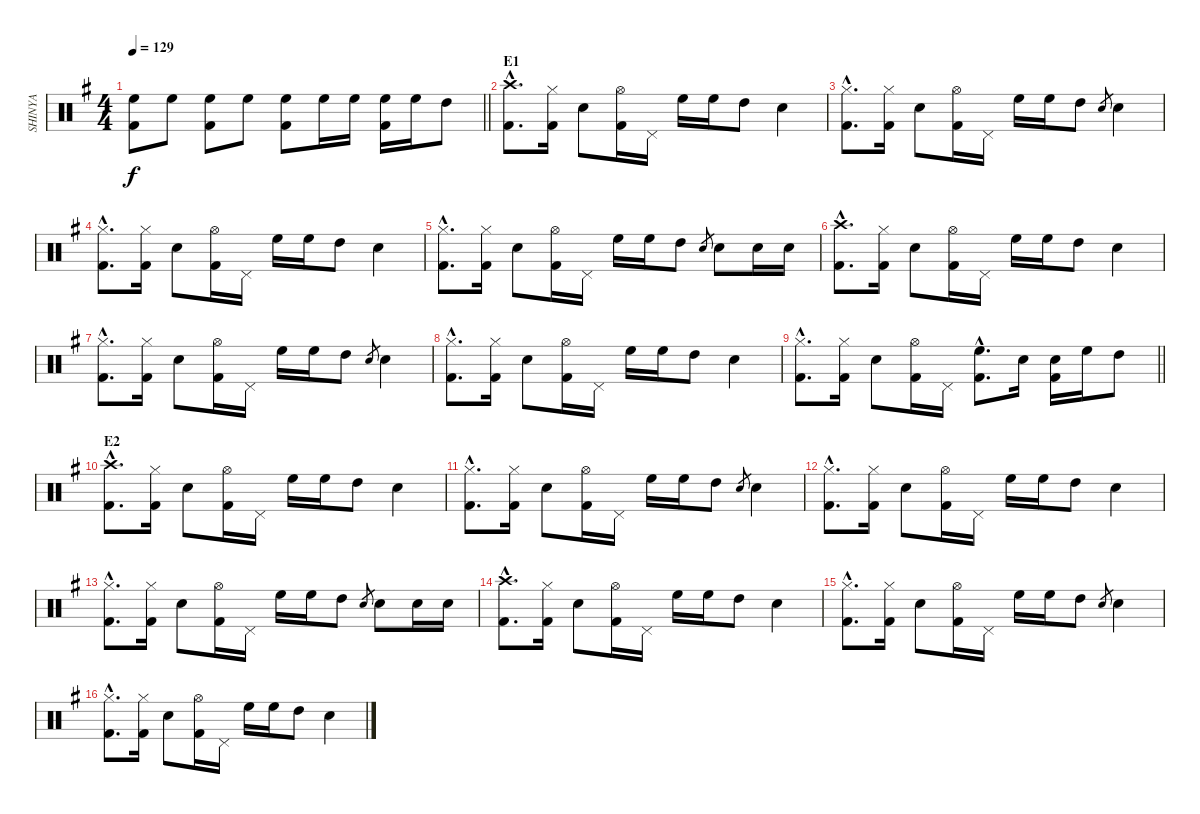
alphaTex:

\track ("SHINYA" "SHINYA") {instrument percussion}
\staff {score}
\articulation defaults
\ts (4 4)
\tempo 129
\clef neutral
\barLineRight lightlight
\ks g
("High Floor Tom (hit)" "Kick (hit) 2").8{dy f} "High Floor Tom (hit)".8 ("High Floor Tom (hit)" "Kick (hit) 2").8 "High Floor Tom (hit)".8 ("High Floor Tom (hit)" "Kick (hit) 2").8 "High Floor Tom (hit)".16 "High Floor Tom (hit)".16 ("High Floor Tom (hit)" "Kick (hit) 2").16 "High Floor Tom (hit)".16 "High Tom (hit)".8 |
\section ("" "E1")
("Crash high (hit)"{hac} "Kick (hit) 2"{hac}).8{d} ("Hi-Hat (closed)" "Kick (hit) 2").16 "Snare (hit) 2".8 ("Hi-Hat (open)" "Kick (hit) 2").16 "Pedal Hi-Hat (hit)".16 "High Floor Tom (hit)".16 "High Floor Tom (hit)".16 "High Tom (hit)".8 "Snare (hit) 2".4 |
("Hi-Hat (closed)"{hac} "Kick (hit) 2"{hac}).8{d} ("Hi-Hat (closed)" "Kick (hit) 2").16 "Snare (hit) 2".8 ("Hi-Hat (open)" "Kick (hit) 2").16 "Pedal Hi-Hat (hit)".16 "High Floor Tom (hit)".16 "High Floor Tom (hit)".16 "High Tom (hit)".8 "Snare (hit) 2".8{gr} "Snare (hit) 2".4 |
("Hi-Hat (closed)"{hac} "Kick (hit) 2"{hac}).8{d} ("Hi-Hat (closed)" "Kick (hit) 2").16 "Snare (hit) 2".8 ("Hi-Hat (open)" "Kick (hit) 2").16 "Pedal Hi-Hat (hit)".16 "High Floor Tom (hit)".16 "High Floor Tom (hit)".16 "High Tom (hit)".8 "Snare (hit) 2".4 |
("Hi-Hat (closed)"{hac} "Kick (hit) 2"{hac}).8{d} ("Hi-Hat (closed)" "Kick (hit) 2").16 "Snare (hit) 2".8 ("Hi-Hat (open)" "Kick (hit) 2").16 "Pedal Hi-Hat (hit)".16 "High Floor Tom (hit)".16 "High Floor Tom (hit)".16 "High Tom (hit)".8 "Snare (hit) 2".8{gr} "Snare (hit) 2".8 "Snare (hit) 2".16 "Snare (hit) 2".16 |
("Crash high (hit)"{hac} "Kick (hit) 2"{hac}).8{d} ("Hi-Hat (closed)" "Kick (hit) 2").16 "Snare (hit) 2".8 ("Hi-Hat (open)" "Kick (hit) 2").16 "Pedal Hi-Hat (hit)".16 "High Floor Tom (hit)".16 "High Floor Tom (hit)".16 "High Tom (hit)".8 "Snare (hit) 2".4 |
("Hi-Hat (closed)"{hac} "Kick (hit) 2"{hac}).8{d} ("Hi-Hat (closed)" "Kick (hit) 2").16 "Snare (hit) 2".8 ("Hi-Hat (open)" "Kick (hit) 2").16 "Pedal Hi-Hat (hit)".16 "High Floor Tom (hit)".16 "High Floor Tom (hit)".16 "High Tom (hit)".8 "Snare (hit) 2".8{gr} "Snare (hit) 2".4 |
("Hi-Hat (closed)"{hac} "Kick (hit) 2"{hac}).8{d} ("Hi-Hat (closed)" "Kick (hit) 2").16 "Snare (hit) 2".8 ("Hi-Hat (open)" "Kick (hit) 2").16 "Pedal Hi-Hat (hit)".16 "High Floor Tom (hit)".16 "High Floor Tom (hit)".16 "High Tom (hit)".8 "Snare (hit) 2".4 |
\barLineRight lightlight
("Hi-Hat (closed)"{hac} "Kick (hit) 2"{hac}).8{d} ("Hi-Hat (closed)" "Kick (hit) 2").16 "Snare (hit) 2".8 ("Hi-Hat (open)" "Kick (hit) 2").16 "Pedal Hi-Hat (hit)".16 ("High Floor Tom (hit)"{hac} "Kick (hit) 2"{hac}).8{d} "Snare (hit) 2".16 ("Snare (hit) 2" "Kick (hit) 2").16 "High Floor Tom (hit)".16 "High Tom (hit)".8 |
\section ("" "E2")
("Crash high (hit)"{hac} "Kick (hit) 2"{hac}).8{d} ("Hi-Hat (closed)" "Kick (hit) 2").16 "Snare (hit) 2".8 ("Hi-Hat (open)" "Kick (hit) 2").16 "Pedal Hi-Hat (hit)".16 "High Floor Tom (hit)".16 "High Floor Tom (hit)".16 "High Tom (hit)".8 "Snare (hit) 2".4 |
("Hi-Hat (closed)"{hac} "Kick (hit) 2"{hac}).8{d} ("Hi-Hat (closed)" "Kick (hit) 2").16 "Snare (hit) 2".8 ("Hi-Hat (open)" "Kick (hit) 2").16 "Pedal Hi-Hat (hit)".16 "High Floor Tom (hit)".16 "High Floor Tom (hit)".16 "High Tom (hit)".8 "Snare (hit) 2".8{gr} "Snare (hit) 2".4 |
("Hi-Hat (closed)"{hac} "Kick (hit) 2"{hac}).8{d} ("Hi-Hat (closed)" "Kick (hit) 2").16 "Snare (hit) 2".8 ("Hi-Hat (open)" "Kick (hit) 2").16 "Pedal Hi-Hat (hit)".16 "High Floor Tom (hit)".16 "High Floor Tom (hit)".16 "High Tom (hit)".8 "Snare (hit) 2".4 |
("Hi-Hat (closed)"{hac} "Kick (hit) 2"{hac}).8{d} ("Hi-Hat (closed)" "Kick (hit) 2").16 "Snare (hit) 2".8 ("Hi-Hat (open)" "Kick (hit) 2").16 "Pedal Hi-Hat (hit)".16 "High Floor Tom (hit)".16 "High Floor Tom (hit)".16 "High Tom (hit)".8 "Snare (hit) 2".8{gr} "Snare (hit) 2".8 "Snare (hit) 2".16 "Snare (hit) 2".16 |
("Crash high (hit)"{hac} "Kick (hit) 2"{hac}).8{d} ("Hi-Hat (closed)" "Kick (hit) 2").16 "Snare (hit) 2".8 ("Hi-Hat (open)" "Kick (hit) 2").16 "Pedal Hi-Hat (hit)".16 "High Floor Tom (hit)".16 "High Floor Tom (hit)".16 "High Tom (hit)".8 "Snare (hit) 2".4 |
("Hi-Hat (closed)"{hac} "Kick (hit) 2"{hac}).8{d} ("Hi-Hat (closed)" "Kick (hit) 2").16 "Snare (hit) 2".8 ("Hi-Hat (open)" "Kick (hit) 2").16 "Pedal Hi-Hat (hit)".16 "High Floor Tom (hit)".16 "High Floor Tom (hit)".16 "High Tom (hit)".8 "Snare (hit) 2".8{gr} "Snare (hit) 2".4 |
("Hi-Hat (closed)"{hac} "Kick (hit) 2"{hac}).8{d} ("Hi-Hat (closed)" "Kick (hit) 2").16 "Snare (hit) 2".8 ("Hi-Hat (open)" "Kick (hit) 2").16 "Pedal Hi-Hat (hit)".16 "High Floor Tom (hit)".16 "High Floor Tom (hit)".16 "High Tom (hit)".8 "Snare (hit) 2".4
